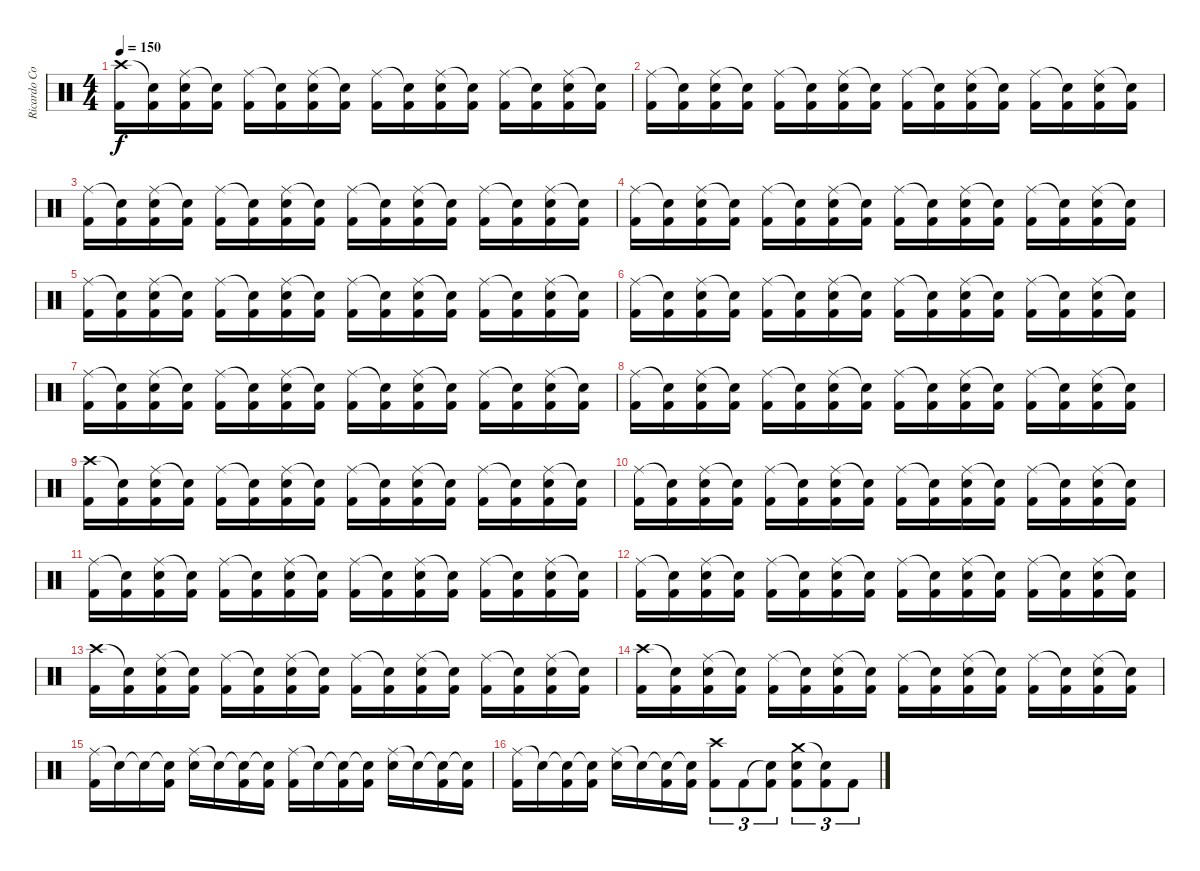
\track ("Ricardo Confessori" "Ricardo Co") {instrument percussion}
\staff {score}
\articulation defaults
\ts (4 4)
\tempo 150
\clef neutral
\ks c
("Crash high (hit)" "Kick (hit) 2").16{dy f} ("Snare (hit)"{t} "Kick (hit) 2").16 ("Ride (middle)" "Electric Snare (hit)" "Kick (hit) 2").16 ("Snare (hit)"{t} "Kick (hit) 2").16 ("Ride (middle)" "Kick (hit) 2").16 ("Snare (hit)"{t} "Kick (hit) 2").16 ("Ride (middle)" "Electric Snare (hit)" "Kick (hit) 2").16 ("Snare (hit)"{t} "Kick (hit) 2").16 ("Ride (middle)" "Kick (hit) 2").16 ("Snare (hit)"{t} "Kick (hit) 2").16 ("Ride (middle)" "Electric Snare (hit)" "Kick (hit) 2").16 ("Snare (hit)"{t} "Kick (hit) 2").16 ("Ride (middle)" "Kick (hit) 2").16 ("Snare (hit)"{t} "Kick (hit) 2").16 ("Ride (middle)" "Electric Snare (hit)" "Kick (hit) 2").16 ("Snare (hit)"{t} "Kick (hit) 2").16 |
("Ride (middle)" "Kick (hit) 2").16 ("Snare (hit)"{t} "Kick (hit) 2").16 ("Ride (middle)" "Electric Snare (hit)" "Kick (hit) 2").16 ("Snare (hit)"{t} "Kick (hit) 2").16 ("Ride (middle)" "Kick (hit) 2").16 ("Snare (hit)"{t} "Kick (hit) 2").16 ("Ride (middle)" "Electric Snare (hit)" "Kick (hit) 2").16 ("Snare (hit)"{t} "Kick (hit) 2").16 ("Ride (middle)" "Kick (hit) 2").16 ("Snare (hit)"{t} "Kick (hit) 2").16 ("Ride (middle)" "Electric Snare (hit)" "Kick (hit) 2").16 ("Snare (hit)"{t} "Kick (hit) 2").16 ("Ride (middle)" "Kick (hit) 2").16 ("Snare (hit)"{t} "Kick (hit) 2").16 ("Ride (middle)" "Electric Snare (hit)" "Kick (hit) 2").16 ("Snare (hit)"{t} "Kick (hit) 2").16 |
("Ride (middle)" "Kick (hit) 2").16 ("Snare (hit)"{t} "Kick (hit) 2").16 ("Ride (middle)" "Electric Snare (hit)" "Kick (hit) 2").16 ("Snare (hit)"{t} "Kick (hit) 2").16 ("Ride (middle)" "Kick (hit) 2").16 ("Snare (hit)"{t} "Kick (hit) 2").16 ("Ride (middle)" "Electric Snare (hit)" "Kick (hit) 2").16 ("Snare (hit)"{t} "Kick (hit) 2").16 ("Ride (middle)" "Kick (hit) 2").16 ("Snare (hit)"{t} "Kick (hit) 2").16 ("Ride (middle)" "Electric Snare (hit)" "Kick (hit) 2").16 ("Snare (hit)"{t} "Kick (hit) 2").16 ("Ride (middle)" "Kick (hit) 2").16 ("Snare (hit)"{t} "Kick (hit) 2").16 ("Ride (middle)" "Electric Snare (hit)" "Kick (hit) 2").16 ("Snare (hit)"{t} "Kick (hit) 2").16 |
("Ride (middle)" "Kick (hit) 2").16 ("Snare (hit)"{t} "Kick (hit) 2").16 ("Ride (middle)" "Electric Snare (hit)" "Kick (hit) 2").16 ("Snare (hit)"{t} "Kick (hit) 2").16 ("Ride (middle)" "Kick (hit) 2").16 ("Snare (hit)"{t} "Kick (hit) 2").16 ("Ride (middle)" "Electric Snare (hit)" "Kick (hit) 2").16 ("Snare (hit)"{t} "Kick (hit) 2").16 ("Ride (middle)" "Kick (hit) 2").16 ("Snare (hit)"{t} "Kick (hit) 2").16 ("Ride (middle)" "Electric Snare (hit)" "Kick (hit) 2").16 ("Snare (hit)"{t} "Kick (hit) 2").16 ("Ride (middle)" "Kick (hit) 2").16 ("Snare (hit)"{t} "Kick (hit) 2").16 ("Ride (middle)" "Electric Snare (hit)" "Kick (hit) 2").16 ("Snare (hit)"{t} "Kick (hit) 2").16 |
("Ride (middle)" "Kick (hit) 2").16 ("Snare (hit)"{t} "Kick (hit) 2").16 ("Ride (middle)" "Electric Snare (hit)" "Kick (hit) 2").16 ("Snare (hit)"{t} "Kick (hit) 2").16 ("Ride (middle)" "Kick (hit) 2").16 ("Snare (hit)"{t} "Kick (hit) 2").16 ("Ride (middle)" "Electric Snare (hit)" "Kick (hit) 2").16 ("Snare (hit)"{t} "Kick (hit) 2").16 ("Ride (middle)" "Kick (hit) 2").16 ("Snare (hit)"{t} "Kick (hit) 2").16 ("Ride (middle)" "Electric Snare (hit)" "Kick (hit) 2").16 ("Snare (hit)"{t} "Kick (hit) 2").16 ("Ride (middle)" "Kick (hit) 2").16 ("Snare (hit)"{t} "Kick (hit) 2").16 ("Ride (middle)" "Electric Snare (hit)" "Kick (hit) 2").16 ("Snare (hit)"{t} "Kick (hit) 2").16 |
("Ride (middle)" "Kick (hit) 2").16 ("Snare (hit)"{t} "Kick (hit) 2").16 ("Ride (middle)" "Electric Snare (hit)" "Kick (hit) 2").16 ("Snare (hit)"{t} "Kick (hit) 2").16 ("Ride (middle)" "Kick (hit) 2").16 ("Snare (hit)"{t} "Kick (hit) 2").16 ("Ride (middle)" "Electric Snare (hit)" "Kick (hit) 2").16 ("Snare (hit)"{t} "Kick (hit) 2").16 ("Ride (middle)" "Kick (hit) 2").16 ("Snare (hit)"{t} "Kick (hit) 2").16 ("Ride (middle)" "Electric Snare (hit)" "Kick (hit) 2").16 ("Snare (hit)"{t} "Kick (hit) 2").16 ("Ride (middle)" "Kick (hit) 2").16 ("Snare (hit)"{t} "Kick (hit) 2").16 ("Ride (middle)" "Electric Snare (hit)" "Kick (hit) 2").16 ("Snare (hit)"{t} "Kick (hit) 2").16 |
("Ride (middle)" "Kick (hit) 2").16 ("Snare (hit)"{t} "Kick (hit) 2").16 ("Ride (middle)" "Electric Snare (hit)" "Kick (hit) 2").16 ("Snare (hit)"{t} "Kick (hit) 2").16 ("Ride (middle)" "Kick (hit) 2").16 ("Snare (hit)"{t} "Kick (hit) 2").16 ("Ride (middle)" "Electric Snare (hit)" "Kick (hit) 2").16 ("Snare (hit)"{t} "Kick (hit) 2").16 ("Ride (middle)" "Kick (hit) 2").16 ("Snare (hit)"{t} "Kick (hit) 2").16 ("Ride (middle)" "Electric Snare (hit)" "Kick (hit) 2").16 ("Snare (hit)"{t} "Kick (hit) 2").16 ("Ride (middle)" "Kick (hit) 2").16 ("Snare (hit)"{t} "Kick (hit) 2").16 ("Ride (middle)" "Electric Snare (hit)" "Kick (hit) 2").16 ("Snare (hit)"{t} "Kick (hit) 2").16 |
("Ride (middle)" "Kick (hit) 2").16 ("Snare (hit)"{t} "Kick (hit) 2").16 ("Ride (middle)" "Electric Snare (hit)" "Kick (hit) 2").16 ("Snare (hit)"{t} "Kick (hit) 2").16 ("Ride (middle)" "Kick (hit) 2").16 ("Snare (hit)"{t} "Kick (hit) 2").16 ("Ride (middle)" "Electric Snare (hit)" "Kick (hit) 2").16 ("Snare (hit)"{t} "Kick (hit) 2").16 ("Ride (middle)" "Kick (hit) 2").16 ("Snare (hit)"{t} "Kick (hit) 2").16 ("Ride (middle)" "Electric Snare (hit)" "Kick (hit) 2").16 ("Snare (hit)"{t} "Kick (hit) 2").16 ("Ride (middle)" "Kick (hit) 2").16 ("Snare (hit)"{t} "Kick (hit) 2").16 ("Ride (middle)" "Electric Snare (hit)" "Kick (hit) 2").16 ("Snare (hit)"{t} "Kick (hit) 2").16 |
("Crash high (hit)" "Kick (hit) 2").16 ("Snare (hit)"{t} "Kick (hit) 2").16 ("Ride (middle)" "Electric Snare (hit)" "Kick (hit) 2").16 ("Snare (hit)"{t} "Kick (hit) 2").16 ("Ride (middle)" "Kick (hit) 2").16 ("Snare (hit)"{t} "Kick (hit) 2").16 ("Ride (middle)" "Electric Snare (hit)" "Kick (hit) 2").16 ("Snare (hit)"{t} "Kick (hit) 2").16 ("Ride (middle)" "Kick (hit) 2").16 ("Snare (hit)"{t} "Kick (hit) 2").16 ("Ride (middle)" "Electric Snare (hit)" "Kick (hit) 2").16 ("Snare (hit)"{t} "Kick (hit) 2").16 ("Ride (middle)" "Kick (hit) 2").16 ("Snare (hit)"{t} "Kick (hit) 2").16 ("Ride (middle)" "Electric Snare (hit)" "Kick (hit) 2").16 ("Snare (hit)"{t} "Kick (hit) 2").16 |
("Ride (middle)" "Kick (hit) 2").16 ("Snare (hit)"{t} "Kick (hit) 2").16 ("Ride (middle)" "Electric Snare (hit)" "Kick (hit) 2").16 ("Snare (hit)"{t} "Kick (hit) 2").16 ("Ride (middle)" "Kick (hit) 2").16 ("Snare (hit)"{t} "Kick (hit) 2").16 ("Ride (middle)" "Electric Snare (hit)" "Kick (hit) 2").16 ("Snare (hit)"{t} "Kick (hit) 2").16 ("Ride (middle)" "Kick (hit) 2").16 ("Snare (hit)"{t} "Kick (hit) 2").16 ("Ride (middle)" "Electric Snare (hit)" "Kick (hit) 2").16 ("Snare (hit)"{t} "Kick (hit) 2").16 ("Ride (middle)" "Kick (hit) 2").16 ("Snare (hit)"{t} "Kick (hit) 2").16 ("Ride (middle)" "Electric Snare (hit)" "Kick (hit) 2").16 ("Snare (hit)"{t} "Kick (hit) 2").16 |
("Ride (middle)" "Kick (hit) 2").16 ("Snare (hit)"{t} "Kick (hit) 2").16 ("Ride (middle)" "Electric Snare (hit)" "Kick (hit) 2").16 ("Snare (hit)"{t} "Kick (hit) 2").16 ("Ride (middle)" "Kick (hit) 2").16 ("Snare (hit)"{t} "Kick (hit) 2").16 ("Ride (middle)" "Electric Snare (hit)" "Kick (hit) 2").16 ("Snare (hit)"{t} "Kick (hit) 2").16 ("Ride (middle)" "Kick (hit) 2").16 ("Snare (hit)"{t} "Kick (hit) 2").16 ("Ride (middle)" "Electric Snare (hit)" "Kick (hit) 2").16 ("Snare (hit)"{t} "Kick (hit) 2").16 ("Ride (middle)" "Kick (hit) 2").16 ("Snare (hit)"{t} "Kick (hit) 2").16 ("Ride (middle)" "Electric Snare (hit)" "Kick (hit) 2").16 ("Snare (hit)"{t} "Kick (hit) 2").16 |
("Ride (middle)" "Kick (hit) 2").16 ("Snare (hit)"{t} "Kick (hit) 2").16 ("Ride (middle)" "Electric Snare (hit)" "Kick (hit) 2").16 ("Snare (hit)"{t} "Kick (hit) 2").16 ("Ride (middle)" "Kick (hit) 2").16 ("Snare (hit)"{t} "Kick (hit) 2").16 ("Ride (middle)" "Electric Snare (hit)" "Kick (hit) 2").16 ("Snare (hit)"{t} "Kick (hit) 2").16 ("Ride (middle)" "Kick (hit) 2").16 ("Snare (hit)"{t} "Kick (hit) 2").16 ("Ride (middle)" "Electric Snare (hit)" "Kick (hit) 2").16 ("Snare (hit)"{t} "Kick (hit) 2").16 ("Ride (middle)" "Kick (hit) 2").16 ("Snare (hit)"{t} "Kick (hit) 2").16 ("Ride (middle)" "Electric Snare (hit)" "Kick (hit) 2").16 ("Snare (hit)"{t} "Kick (hit) 2").16 |
("Crash high (hit)" "Kick (hit) 2").16 ("Snare (hit)"{t} "Kick (hit) 2").16 ("Ride (middle)" "Electric Snare (hit)" "Kick (hit) 2").16 ("Snare (hit)"{t} "Kick (hit) 2").16 ("Ride (middle)" "Kick (hit) 2").16 ("Snare (hit)"{t} "Kick (hit) 2").16 ("Ride (middle)" "Electric Snare (hit)" "Kick (hit) 2").16 ("Snare (hit)"{t} "Kick (hit) 2").16 ("Ride (middle)" "Kick (hit) 2").16 ("Snare (hit)"{t} "Kick (hit) 2").16 ("Ride (middle)" "Electric Snare (hit)" "Kick (hit) 2").16 ("Snare (hit)"{t} "Kick (hit) 2").16 ("Ride (middle)" "Kick (hit) 2").16 ("Snare (hit)"{t} "Kick (hit) 2").16 ("Ride (middle)" "Electric Snare (hit)" "Kick (hit) 2").16 ("Snare (hit)"{t} "Kick (hit) 2").16 |
("Crash high (hit)" "Kick (hit) 2").16 ("Snare (hit)"{t} "Kick (hit) 2").16 ("Ride (middle)" "Electric Snare (hit)" "Kick (hit) 2").16 ("Snare (hit)"{t} "Kick (hit) 2").16 ("Ride (middle)" "Kick (hit) 2").16 ("Snare (hit)"{t} "Kick (hit) 2").16 ("Ride (middle)" "Electric Snare (hit)" "Kick (hit) 2").16 ("Snare (hit)"{t} "Kick (hit) 2").16 ("Ride (middle)" "Kick (hit) 2").16 ("Snare (hit)"{t} "Kick (hit) 2").16 ("Ride (middle)" "Electric Snare (hit)" "Kick (hit) 2").16 ("Snare (hit)"{t} "Kick (hit) 2").16 ("Ride (middle)" "Kick (hit) 2").16 ("Snare (hit)"{t} "Kick (hit) 2").16 ("Ride (middle)" "Electric Snare (hit)" "Kick (hit) 2").16 ("Snare (hit)"{t} "Kick (hit) 2").16 |
("Ride (middle)" "Kick (hit) 2").16 "Snare (hit)"{t}.16 "Snare (hit)"{t}.16 ("Snare (hit)"{t} "Kick (hit) 2").16 ("Ride (middle)" "Electric Snare (hit)").16 "Snare (hit)"{t}.16 ("Snare (hit)"{t} "Kick (hit) 2").16 ("Snare (hit)"{t} "Kick (hit) 2").16 ("Ride (middle)" "Kick (hit) 2").16 "Snare (hit)"{t}.16 ("Snare (hit)"{t} "Kick (hit) 2").16 ("Snare (hit)"{t} "Kick (hit) 2").16 ("Ride (middle)" "Electric Snare (hit)").16 "Snare (hit)"{t}.16 ("Snare (hit)"{t} "Kick (hit) 2").16 ("Snare (hit)"{t} "Kick (hit) 2").16 |
("Ride (middle)" "Kick (hit) 2").16 "Snare (hit)"{t}.16 ("Snare (hit)"{t} "Kick (hit) 2").16 ("Snare (hit)"{t} "Kick (hit) 2").16 ("Ride (middle)" "Electric Snare (hit)").16 "Snare (hit)"{t}.16 ("Snare (hit)"{t} "Kick (hit) 2").16 ("Snare (hit)"{t} "Kick (hit) 2").16 ("Crash high (hit)" "Kick (hit) 2").8{tu (3 2)} "Kick (hit) 2".8{tu (3 2)} ("Snare (hit)"{t} "Kick (hit) 2").8{tu (3 2)} ("Crash medium (hit)" "Electric Snare (hit)" "Kick (hit) 2").8{tu (3 2)} ("Snare (hit)"{t} "Kick (hit) 2").8{tu (3 2)} "Kick (hit) 2".8{tu (3 2)}
